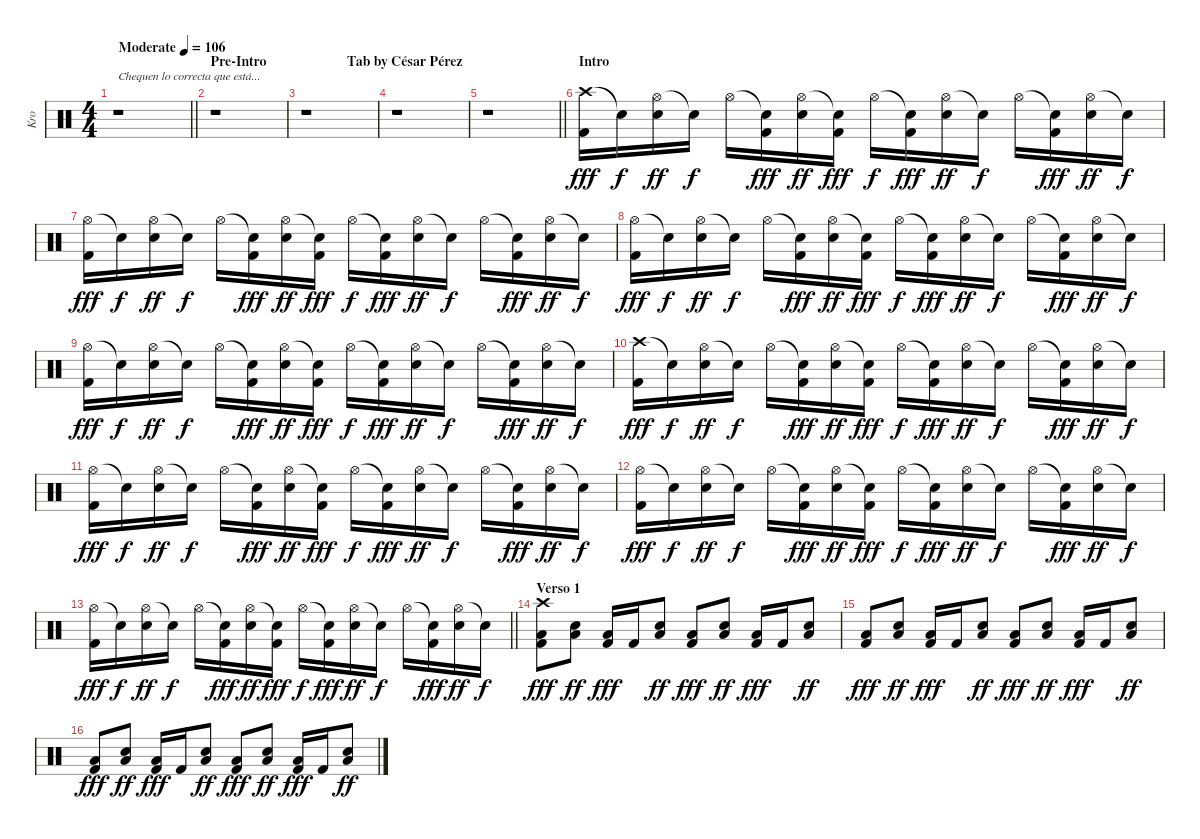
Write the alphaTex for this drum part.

\track ("Kro" "Kro") {instrument percussion}
\staff {score}
\articulation defaults
\ts (4 4)
\tempo (106 "Moderate")
\clef neutral
\barLineRight lightlight
\ks c
r.1{txt "Chequen lo correcta que está..." dy fff} |
\section ("" "Pre-Intro                       Tab by César Pérez")
r.1 |
r.1 |
r.1 |
\barLineRight lightlight
r.1 |
\section ("" "Intro")
("Crash high (hit)" "Kick (hit) 2").16 "Snare (hit)"{t}.16{dy f} ("Hi-Hat (open)" "Electric Snare (hit)").16{dy ff} "Snare (hit)"{t}.16{dy f} "Hi-Hat (open)".16 ("Snare (hit)"{t} "Kick (hit) 2").16{dy fff} ("Hi-Hat (open)" "Electric Snare (hit)").16{dy ff} ("Snare (hit)"{t} "Kick (hit) 2").16{dy fff} "Hi-Hat (open)".16{dy f} ("Snare (hit)"{t} "Kick (hit) 2").16{dy fff} ("Hi-Hat (open)" "Electric Snare (hit)").16{dy ff} "Snare (hit)"{t}.16{dy f} "Hi-Hat (open)".16 ("Snare (hit)"{t} "Kick (hit) 2").16{dy fff} ("Hi-Hat (open)" "Electric Snare (hit)").16{dy ff} "Snare (hit)"{t}.16{dy f} |
("Hi-Hat (open)" "Kick (hit) 2").16{dy fff} "Snare (hit)"{t}.16{dy f} ("Hi-Hat (open)" "Electric Snare (hit)").16{dy ff} "Snare (hit)"{t}.16{dy f} "Hi-Hat (open)".16 ("Snare (hit)"{t} "Kick (hit) 2").16{dy fff} ("Hi-Hat (open)" "Electric Snare (hit)").16{dy ff} ("Snare (hit)"{t} "Kick (hit) 2").16{dy fff} "Hi-Hat (open)".16{dy f} ("Snare (hit)"{t} "Kick (hit) 2").16{dy fff} ("Hi-Hat (open)" "Electric Snare (hit)").16{dy ff} "Snare (hit)"{t}.16{dy f} "Hi-Hat (open)".16 ("Snare (hit)"{t} "Kick (hit) 2").16{dy fff} ("Hi-Hat (open)" "Electric Snare (hit)").16{dy ff} "Snare (hit)"{t}.16{dy f} |
("Hi-Hat (open)" "Kick (hit) 2").16{dy fff} "Snare (hit)"{t}.16{dy f} ("Hi-Hat (open)" "Electric Snare (hit)").16{dy ff} "Snare (hit)"{t}.16{dy f} "Hi-Hat (open)".16 ("Snare (hit)"{t} "Kick (hit) 2").16{dy fff} ("Hi-Hat (open)" "Electric Snare (hit)").16{dy ff} ("Snare (hit)"{t} "Kick (hit) 2").16{dy fff} "Hi-Hat (open)".16{dy f} ("Snare (hit)"{t} "Kick (hit) 2").16{dy fff} ("Hi-Hat (open)" "Electric Snare (hit)").16{dy ff} "Snare (hit)"{t}.16{dy f} "Hi-Hat (open)".16 ("Snare (hit)"{t} "Kick (hit) 2").16{dy fff} ("Hi-Hat (open)" "Electric Snare (hit)").16{dy ff} "Snare (hit)"{t}.16{dy f} |
("Hi-Hat (open)" "Kick (hit) 2").16{dy fff} "Snare (hit)"{t}.16{dy f} ("Hi-Hat (open)" "Electric Snare (hit)").16{dy ff} "Snare (hit)"{t}.16{dy f} "Hi-Hat (open)".16 ("Snare (hit)"{t} "Kick (hit) 2").16{dy fff} ("Hi-Hat (open)" "Electric Snare (hit)").16{dy ff} ("Snare (hit)"{t} "Kick (hit) 2").16{dy fff} "Hi-Hat (open)".16{dy f} ("Snare (hit)"{t} "Kick (hit) 2").16{dy fff} ("Hi-Hat (open)" "Electric Snare (hit)").16{dy ff} "Snare (hit)"{t}.16{dy f} "Hi-Hat (open)".16 ("Snare (hit)"{t} "Kick (hit) 2").16{dy fff} ("Hi-Hat (open)" "Electric Snare (hit)").16{dy ff} "Snare (hit)"{t}.16{dy f} |
("Crash high (hit)" "Kick (hit) 2").16{dy fff} "Snare (hit)"{t}.16{dy f} ("Hi-Hat (open)" "Electric Snare (hit)").16{dy ff} "Snare (hit)"{t}.16{dy f} "Hi-Hat (open)".16 ("Snare (hit)"{t} "Kick (hit) 2").16{dy fff} ("Hi-Hat (open)" "Electric Snare (hit)").16{dy ff} ("Snare (hit)"{t} "Kick (hit) 2").16{dy fff} "Hi-Hat (open)".16{dy f} ("Snare (hit)"{t} "Kick (hit) 2").16{dy fff} ("Hi-Hat (open)" "Electric Snare (hit)").16{dy ff} "Snare (hit)"{t}.16{dy f} "Hi-Hat (open)".16 ("Snare (hit)"{t} "Kick (hit) 2").16{dy fff} ("Hi-Hat (open)" "Electric Snare (hit)").16{dy ff} "Snare (hit)"{t}.16{dy f} |
("Hi-Hat (open)" "Kick (hit) 2").16{dy fff} "Snare (hit)"{t}.16{dy f} ("Hi-Hat (open)" "Electric Snare (hit)").16{dy ff} "Snare (hit)"{t}.16{dy f} "Hi-Hat (open)".16 ("Snare (hit)"{t} "Kick (hit) 2").16{dy fff} ("Hi-Hat (open)" "Electric Snare (hit)").16{dy ff} ("Snare (hit)"{t} "Kick (hit) 2").16{dy fff} "Hi-Hat (open)".16{dy f} ("Snare (hit)"{t} "Kick (hit) 2").16{dy fff} ("Hi-Hat (open)" "Electric Snare (hit)").16{dy ff} "Snare (hit)"{t}.16{dy f} "Hi-Hat (open)".16 ("Snare (hit)"{t} "Kick (hit) 2").16{dy fff} ("Hi-Hat (open)" "Electric Snare (hit)").16{dy ff} "Snare (hit)"{t}.16{dy f} |
("Hi-Hat (open)" "Kick (hit) 2").16{dy fff} "Snare (hit)"{t}.16{dy f} ("Hi-Hat (open)" "Electric Snare (hit)").16{dy ff} "Snare (hit)"{t}.16{dy f} "Hi-Hat (open)".16 ("Snare (hit)"{t} "Kick (hit) 2").16{dy fff} ("Hi-Hat (open)" "Electric Snare (hit)").16{dy ff} ("Snare (hit)"{t} "Kick (hit) 2").16{dy fff} "Hi-Hat (open)".16{dy f} ("Snare (hit)"{t} "Kick (hit) 2").16{dy fff} ("Hi-Hat (open)" "Electric Snare (hit)").16{dy ff} "Snare (hit)"{t}.16{dy f} "Hi-Hat (open)".16 ("Snare (hit)"{t} "Kick (hit) 2").16{dy fff} ("Hi-Hat (open)" "Electric Snare (hit)").16{dy ff} "Snare (hit)"{t}.16{dy f} |
\barLineRight lightlight
("Hi-Hat (open)" "Kick (hit) 2").16{dy fff} "Snare (hit)"{t}.16{dy f} ("Hi-Hat (open)" "Electric Snare (hit)").16{dy ff} "Snare (hit)"{t}.16{dy f} "Hi-Hat (open)".16 ("Snare (hit)"{t} "Kick (hit) 2").16{dy fff} ("Hi-Hat (open)" "Electric Snare (hit)").16{dy ff} ("Snare (hit)"{t} "Kick (hit) 2").16{dy fff} "Hi-Hat (open)".16{dy f} ("Snare (hit)"{t} "Kick (hit) 2").16{dy fff} ("Hi-Hat (open)" "Electric Snare (hit)").16{dy ff} "Snare (hit)"{t}.16{dy f} "Hi-Hat (open)".16 ("Snare (hit)"{t} "Kick (hit) 2").16{dy fff} ("Hi-Hat (open)" "Electric Snare (hit)").16{dy ff} "Snare (hit)"{t}.16{dy f} |
\section ("" "Verso 1")
("Crash high (hit)" "Low Floor Tom (hit)" "Kick (hit) 2").8{dy fff} ("Low Floor Tom (hit)" "Electric Snare (hit)").8{dy ff} ("Low Floor Tom (hit)" "Kick (hit) 2").16{dy fff} "Kick (hit) 2".16 ("Low Floor Tom (hit)" "Electric Snare (hit)").8{dy ff} ("Low Floor Tom (hit)" "Kick (hit) 2").8{dy fff} ("Low Floor Tom (hit)" "Electric Snare (hit)").8{dy ff} ("Low Floor Tom (hit)" "Kick (hit) 2").16{dy fff} "Kick (hit) 2".16 ("Low Floor Tom (hit)" "Electric Snare (hit)").8{dy ff} |
("Low Floor Tom (hit)" "Kick (hit) 2").8{dy fff} ("Low Floor Tom (hit)" "Electric Snare (hit)").8{dy ff} ("Low Floor Tom (hit)" "Kick (hit) 2").16{dy fff} "Kick (hit) 2".16 ("Low Floor Tom (hit)" "Electric Snare (hit)").8{dy ff} ("Low Floor Tom (hit)" "Kick (hit) 2").8{dy fff} ("Low Floor Tom (hit)" "Electric Snare (hit)").8{dy ff} ("Low Floor Tom (hit)" "Kick (hit) 2").16{dy fff} "Kick (hit) 2".16 ("Low Floor Tom (hit)" "Electric Snare (hit)").8{dy ff} |
("Low Floor Tom (hit)" "Kick (hit) 2").8{dy fff} ("Low Floor Tom (hit)" "Electric Snare (hit)").8{dy ff} ("Low Floor Tom (hit)" "Kick (hit) 2").16{dy fff} "Kick (hit) 2".16 ("Low Floor Tom (hit)" "Electric Snare (hit)").8{dy ff} ("Low Floor Tom (hit)" "Kick (hit) 2").8{dy fff} ("Low Floor Tom (hit)" "Electric Snare (hit)").8{dy ff} ("Low Floor Tom (hit)" "Kick (hit) 2").16{dy fff} "Kick (hit) 2".16 ("Low Floor Tom (hit)" "Electric Snare (hit)").8{dy ff}
